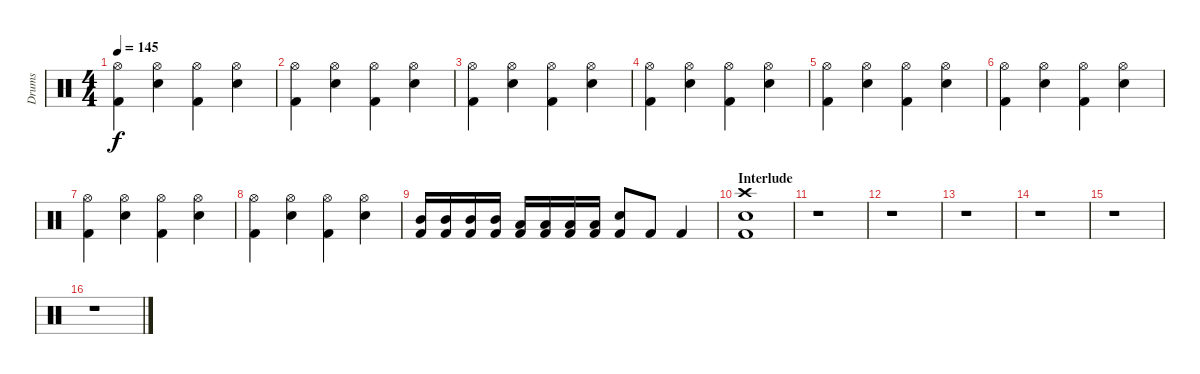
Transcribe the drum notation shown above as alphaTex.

\track ("Drums" "Drums") {instrument percussion}
\staff {score}
\articulation defaults
\ts (4 4)
\tempo 145
\clef neutral
\ks c
("Kick (hit) 2" "Hi-Hat (open)").4{dy f} ("Electric Snare (hit)" "Hi-Hat (open)").4 ("Kick (hit) 2" "Hi-Hat (open)").4 ("Electric Snare (hit)" "Hi-Hat (open)").4 |
("Kick (hit) 2" "Hi-Hat (open)").4 ("Electric Snare (hit)" "Hi-Hat (open)").4 ("Kick (hit) 2" "Hi-Hat (open)").4 ("Electric Snare (hit)" "Hi-Hat (open)").4 |
("Kick (hit) 2" "Hi-Hat (open)").4 ("Electric Snare (hit)" "Hi-Hat (open)").4 ("Kick (hit) 2" "Hi-Hat (open)").4 ("Electric Snare (hit)" "Hi-Hat (open)").4 |
("Kick (hit) 2" "Hi-Hat (open)").4 ("Electric Snare (hit)" "Hi-Hat (open)").4 ("Kick (hit) 2" "Hi-Hat (open)").4 ("Electric Snare (hit)" "Hi-Hat (open)").4 |
("Kick (hit) 2" "Hi-Hat (open)").4 ("Electric Snare (hit)" "Hi-Hat (open)").4 ("Kick (hit) 2" "Hi-Hat (open)").4 ("Electric Snare (hit)" "Hi-Hat (open)").4 |
("Kick (hit) 2" "Hi-Hat (open)").4 ("Electric Snare (hit)" "Hi-Hat (open)").4 ("Kick (hit) 2" "Hi-Hat (open)").4 ("Electric Snare (hit)" "Hi-Hat (open)").4 |
("Kick (hit) 2" "Hi-Hat (open)").4 ("Electric Snare (hit)" "Hi-Hat (open)").4 ("Kick (hit) 2" "Hi-Hat (open)").4 ("Electric Snare (hit)" "Hi-Hat (open)").4 |
("Kick (hit) 2" "Hi-Hat (open)").4 ("Electric Snare (hit)" "Hi-Hat (open)").4 ("Kick (hit) 2" "Hi-Hat (open)").4 ("Electric Snare (hit)" "Hi-Hat (open)").4 |
("Kick (hit) 2" "Mid Tom (hit)").16 ("Kick (hit) 2" "Mid Tom (hit)").16 ("Kick (hit) 2" "Mid Tom (hit)").16 ("Kick (hit) 2" "Mid Tom (hit)").16 ("Kick (hit) 2" "Low Tom (hit)").16 ("Kick (hit) 2" "Low Tom (hit)").16 ("Kick (hit) 2" "Low Tom (hit)").16 ("Kick (hit) 2" "Low Tom (hit)").16 ("Kick (hit) 2" "Electric Snare (hit)").8 "Kick (hit) 2".8 "Kick (hit) 2".4 |
\section ("" "Interlude")
("Kick (hit) 2" "Crash high (hit)" "Electric Snare (hit)").1 |
r.1 |
r.1 |
r.1 |
r.1 |
r.1 |
r.1
